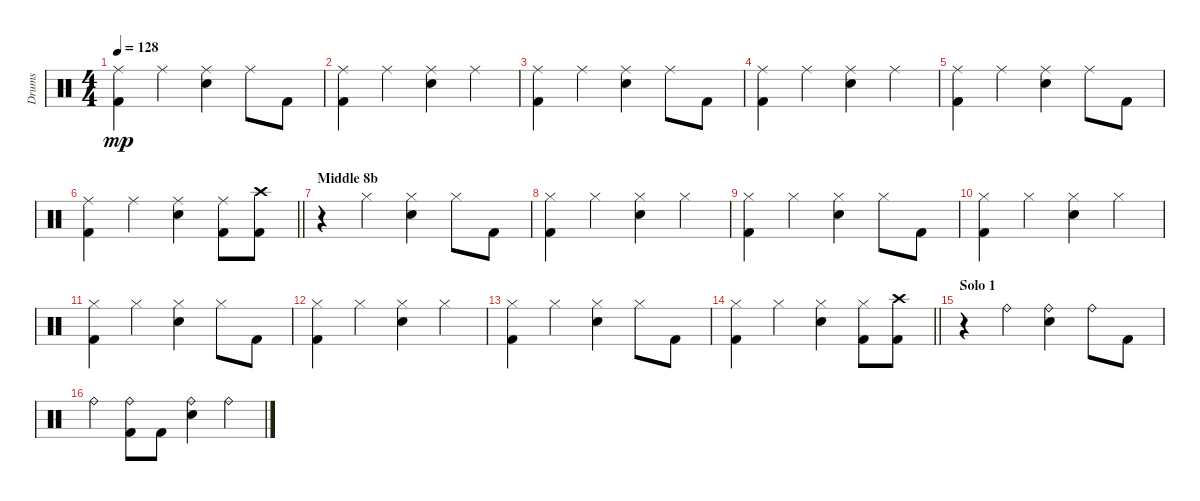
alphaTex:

\track ("Drums" "Drums") {instrument percussion}
\staff {score}
\articulation defaults
\ts (4 4)
\tempo 128
\clef neutral
\ks c
("Ride (middle)" "Kick (hit) 2").4{dy mp} "Ride (middle)".4 ("Ride (middle)" "Snare (hit) 2").4 "Ride (middle)".8 "Kick (hit) 2".8 |
("Ride (middle)" "Kick (hit) 2").4 "Ride (middle)".4 ("Ride (middle)" "Snare (hit) 2").4 "Ride (middle)".4 |
("Ride (middle)" "Kick (hit) 2").4 "Ride (middle)".4 ("Ride (middle)" "Snare (hit) 2").4 "Ride (middle)".8 "Kick (hit) 2".8 |
("Ride (middle)" "Kick (hit) 2").4 "Ride (middle)".4 ("Ride (middle)" "Snare (hit) 2").4 "Ride (middle)".4 |
("Ride (middle)" "Kick (hit) 2").4 "Ride (middle)".4 ("Ride (middle)" "Snare (hit) 2").4 "Ride (middle)".8 "Kick (hit) 2".8 |
\barLineRight lightlight
("Ride (middle)" "Kick (hit) 2").4 "Ride (middle)".4 ("Ride (middle)" "Snare (hit) 2").4 ("Ride (middle)" "Kick (hit) 2").8 ("Crash high (hit)" "Kick (hit) 2").8 |
\section ("" "Middle 8b")
r.4 "Hi-Hat (closed)".4 ("Hi-Hat (closed)" "Snare (hit) 2").4 "Hi-Hat (closed)".8 "Kick (hit) 2".8 |
("Hi-Hat (closed)" "Kick (hit) 2").4 "Hi-Hat (closed)".4 ("Hi-Hat (closed)" "Snare (hit) 2").4 "Hi-Hat (closed)".4 |
("Hi-Hat (closed)" "Kick (hit) 2").4 "Hi-Hat (closed)".4 ("Hi-Hat (closed)" "Snare (hit) 2").4 "Hi-Hat (closed)".8 "Kick (hit) 2".8 |
("Hi-Hat (closed)" "Kick (hit) 2").4 "Hi-Hat (closed)".4 ("Hi-Hat (closed)" "Snare (hit) 2").4 "Hi-Hat (closed)".4 |
("Hi-Hat (closed)" "Kick (hit) 2").4 "Hi-Hat (closed)".4 ("Hi-Hat (closed)" "Snare (hit) 2").4 "Hi-Hat (closed)".8 "Kick (hit) 2".8 |
("Hi-Hat (closed)" "Kick (hit) 2").4 "Hi-Hat (closed)".4 ("Hi-Hat (closed)" "Snare (hit) 2").4 "Hi-Hat (closed)".4 |
("Hi-Hat (closed)" "Kick (hit) 2").4 "Hi-Hat (closed)".4 ("Hi-Hat (closed)" "Snare (hit) 2").4 "Hi-Hat (closed)".8 "Kick (hit) 2".8 |
\barLineRight lightlight
("Hi-Hat (closed)" "Kick (hit) 2").4 "Hi-Hat (closed)".4 ("Hi-Hat (closed)" "Snare (hit) 2").4 ("Hi-Hat (closed)" "Kick (hit) 2").8 ("Crash high (hit)" "Kick (hit) 2").8 |
\section ("" "Solo 1")
r.4 "Ride (bell)".4 ("Ride (bell)" "Snare (hit) 2").4 "Ride (bell)".8 "Kick (hit) 2".8 |
"Ride (bell)".4 ("Ride (bell)" "Kick (hit) 2").8 "Kick (hit) 2".8 ("Ride (bell)" "Snare (hit) 2").4 "Ride (bell)".4
